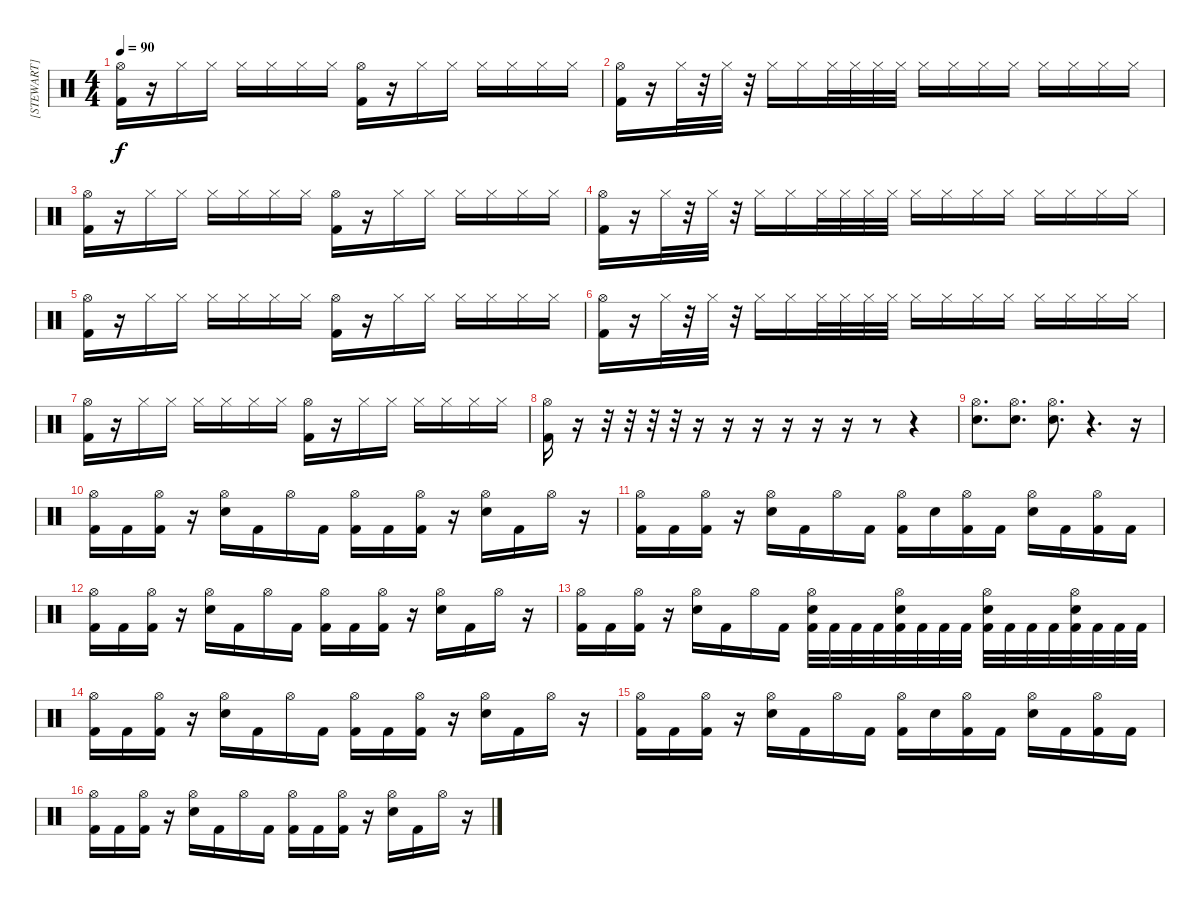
\track ("[STEWART]" "[STEWART]") {instrument percussion}
\staff {score}
\articulation defaults
\ts (4 4)
\tempo 90
\clef neutral
\ks c
("Hi-Hat (open)" "Kick (hit) 2").16{dy f} r.16 "Hi-Hat (closed)".16 "Hi-Hat (closed)".16 "Hi-Hat (closed)".16 "Hi-Hat (closed)".16 "Hi-Hat (closed)".16 "Hi-Hat (closed)".16 ("Hi-Hat (open)" "Kick (hit) 2").16 r.16 "Hi-Hat (closed)".16 "Hi-Hat (closed)".16 "Hi-Hat (closed)".16 "Hi-Hat (closed)".16 "Hi-Hat (closed)".16 "Hi-Hat (closed)".16 |
("Hi-Hat (open)" "Kick (hit) 2").16 r.16 "Hi-Hat (closed)".32 r.32 "Hi-Hat (closed)".32 r.32 "Hi-Hat (closed)".16 "Hi-Hat (closed)".16 "Hi-Hat (closed)".32 "Hi-Hat (closed)".32 "Hi-Hat (closed)".32 "Hi-Hat (closed)".32 "Hi-Hat (closed)".16 "Hi-Hat (closed)".16 "Hi-Hat (closed)".16 "Hi-Hat (closed)".16 "Hi-Hat (closed)".16 "Hi-Hat (closed)".16 "Hi-Hat (closed)".16 "Hi-Hat (closed)".16 |
("Hi-Hat (open)" "Kick (hit) 2").16 r.16 "Hi-Hat (closed)".16 "Hi-Hat (closed)".16 "Hi-Hat (closed)".16 "Hi-Hat (closed)".16 "Hi-Hat (closed)".16 "Hi-Hat (closed)".16 ("Hi-Hat (open)" "Kick (hit) 2").16 r.16 "Hi-Hat (closed)".16 "Hi-Hat (closed)".16 "Hi-Hat (closed)".16 "Hi-Hat (closed)".16 "Hi-Hat (closed)".16 "Hi-Hat (closed)".16 |
("Hi-Hat (open)" "Kick (hit) 2").16 r.16 "Hi-Hat (closed)".32 r.32 "Hi-Hat (closed)".32 r.32 "Hi-Hat (closed)".16 "Hi-Hat (closed)".16 "Hi-Hat (closed)".32 "Hi-Hat (closed)".32 "Hi-Hat (closed)".32 "Hi-Hat (closed)".32 "Hi-Hat (closed)".16 "Hi-Hat (closed)".16 "Hi-Hat (closed)".16 "Hi-Hat (closed)".16 "Hi-Hat (closed)".16 "Hi-Hat (closed)".16 "Hi-Hat (closed)".16 "Hi-Hat (closed)".16 |
("Hi-Hat (open)" "Kick (hit) 2").16 r.16 "Hi-Hat (closed)".16 "Hi-Hat (closed)".16 "Hi-Hat (closed)".16 "Hi-Hat (closed)".16 "Hi-Hat (closed)".16 "Hi-Hat (closed)".16 ("Hi-Hat (open)" "Kick (hit) 2").16 r.16 "Hi-Hat (closed)".16 "Hi-Hat (closed)".16 "Hi-Hat (closed)".16 "Hi-Hat (closed)".16 "Hi-Hat (closed)".16 "Hi-Hat (closed)".16 |
("Hi-Hat (open)" "Kick (hit) 2").16 r.16 "Hi-Hat (closed)".32 r.32 "Hi-Hat (closed)".32 r.32 "Hi-Hat (closed)".16 "Hi-Hat (closed)".16 "Hi-Hat (closed)".32 "Hi-Hat (closed)".32 "Hi-Hat (closed)".32 "Hi-Hat (closed)".32 "Hi-Hat (closed)".16 "Hi-Hat (closed)".16 "Hi-Hat (closed)".16 "Hi-Hat (closed)".16 "Hi-Hat (closed)".16 "Hi-Hat (closed)".16 "Hi-Hat (closed)".16 "Hi-Hat (closed)".16 |
("Hi-Hat (open)" "Kick (hit) 2").16 r.16 "Hi-Hat (closed)".16 "Hi-Hat (closed)".16 "Hi-Hat (closed)".16 "Hi-Hat (closed)".16 "Hi-Hat (closed)".16 "Hi-Hat (closed)".16 ("Hi-Hat (open)" "Kick (hit) 2").16 r.16 "Hi-Hat (closed)".16 "Hi-Hat (closed)".16 "Hi-Hat (closed)".16 "Hi-Hat (closed)".16 "Hi-Hat (closed)".16 "Hi-Hat (closed)".16 |
("Hi-Hat (open)" "Kick (hit) 2").16 r.16 r.32 r.32 r.32 r.32 r.16 r.16 r.16 r.16 r.16 r.16 r.8 r.4 |
("Hi-Hat (open)" "Snare (hit) 2").8{d} ("Hi-Hat (open)" "Snare (hit) 2").8{d} ("Hi-Hat (open)" "Snare (hit) 2").8{d} r.4{d} r.16 |
("Hi-Hat (open)" "Kick (hit) 2").16 "Kick (hit) 2".16 ("Hi-Hat (open)" "Kick (hit) 2").16 r.16 ("Hi-Hat (open)" "Snare (hit) 2").16 "Kick (hit) 2".16 "Hi-Hat (open)".16 "Kick (hit) 2".16 ("Hi-Hat (open)" "Kick (hit) 2").16 "Kick (hit) 2".16 ("Hi-Hat (open)" "Kick (hit) 2").16 r.16 ("Hi-Hat (open)" "Snare (hit) 2").16 "Kick (hit) 2".16 "Hi-Hat (open)".16 r.16 |
("Hi-Hat (open)" "Kick (hit) 2").16 "Kick (hit) 2".16 ("Hi-Hat (open)" "Kick (hit) 2").16 r.16 ("Hi-Hat (open)" "Snare (hit) 2").16 "Kick (hit) 2".16 "Hi-Hat (open)".16 "Kick (hit) 2".16 ("Hi-Hat (open)" "Kick (hit) 2").16 "Snare (hit) 2".16 ("Hi-Hat (open)" "Kick (hit) 2").16 "Kick (hit) 2".16 ("Hi-Hat (open)" "Snare (hit) 2").16 "Kick (hit) 2".16 ("Hi-Hat (open)" "Kick (hit) 2").16 "Kick (hit) 2".16 |
("Hi-Hat (open)" "Kick (hit) 2").16 "Kick (hit) 2".16 ("Hi-Hat (open)" "Kick (hit) 2").16 r.16 ("Hi-Hat (open)" "Snare (hit) 2").16 "Kick (hit) 2".16 "Hi-Hat (open)".16 "Kick (hit) 2".16 ("Hi-Hat (open)" "Kick (hit) 2").16 "Kick (hit) 2".16 ("Hi-Hat (open)" "Kick (hit) 2").16 r.16 ("Hi-Hat (open)" "Snare (hit) 2").16 "Kick (hit) 2".16 "Hi-Hat (open)".16 r.16 |
("Hi-Hat (open)" "Kick (hit) 2").16 "Kick (hit) 2".16 ("Hi-Hat (open)" "Kick (hit) 2").16 r.16 ("Hi-Hat (open)" "Snare (hit) 2").16 "Kick (hit) 2".16 "Hi-Hat (open)".16 "Kick (hit) 2".16 ("Hi-Hat (open)" "Snare (hit) 2" "Kick (hit) 2").32 "Kick (hit) 2".32 "Kick (hit) 2".32 "Kick (hit) 2".32 ("Hi-Hat (open)" "Snare (hit) 2" "Kick (hit) 2").32 "Kick (hit) 2".32 "Kick (hit) 2".32 "Kick (hit) 2".32 ("Hi-Hat (open)" "Snare (hit) 2" "Kick (hit) 2").32 "Kick (hit) 2".32 "Kick (hit) 2".32 "Kick (hit) 2".32 ("Hi-Hat (open)" "Snare (hit) 2" "Kick (hit) 2").32 "Kick (hit) 2".32 "Kick (hit) 2".32 "Kick (hit) 2".32 |
("Hi-Hat (open)" "Kick (hit) 2").16 "Kick (hit) 2".16 ("Hi-Hat (open)" "Kick (hit) 2").16 r.16 ("Hi-Hat (open)" "Snare (hit) 2").16 "Kick (hit) 2".16 "Hi-Hat (open)".16 "Kick (hit) 2".16 ("Hi-Hat (open)" "Kick (hit) 2").16 "Kick (hit) 2".16 ("Hi-Hat (open)" "Kick (hit) 2").16 r.16 ("Hi-Hat (open)" "Snare (hit) 2").16 "Kick (hit) 2".16 "Hi-Hat (open)".16 r.16 |
("Hi-Hat (open)" "Kick (hit) 2").16 "Kick (hit) 2".16 ("Hi-Hat (open)" "Kick (hit) 2").16 r.16 ("Hi-Hat (open)" "Snare (hit) 2").16 "Kick (hit) 2".16 "Hi-Hat (open)".16 "Kick (hit) 2".16 ("Hi-Hat (open)" "Kick (hit) 2").16 "Snare (hit) 2".16 ("Hi-Hat (open)" "Kick (hit) 2").16 "Kick (hit) 2".16 ("Hi-Hat (open)" "Snare (hit) 2").16 "Kick (hit) 2".16 ("Hi-Hat (open)" "Kick (hit) 2").16 "Kick (hit) 2".16 |
("Hi-Hat (open)" "Kick (hit) 2").16 "Kick (hit) 2".16 ("Hi-Hat (open)" "Kick (hit) 2").16 r.16 ("Hi-Hat (open)" "Snare (hit) 2").16 "Kick (hit) 2".16 "Hi-Hat (open)".16 "Kick (hit) 2".16 ("Hi-Hat (open)" "Kick (hit) 2").16 "Kick (hit) 2".16 ("Hi-Hat (open)" "Kick (hit) 2").16 r.16 ("Hi-Hat (open)" "Snare (hit) 2").16 "Kick (hit) 2".16 "Hi-Hat (open)".16 r.16
